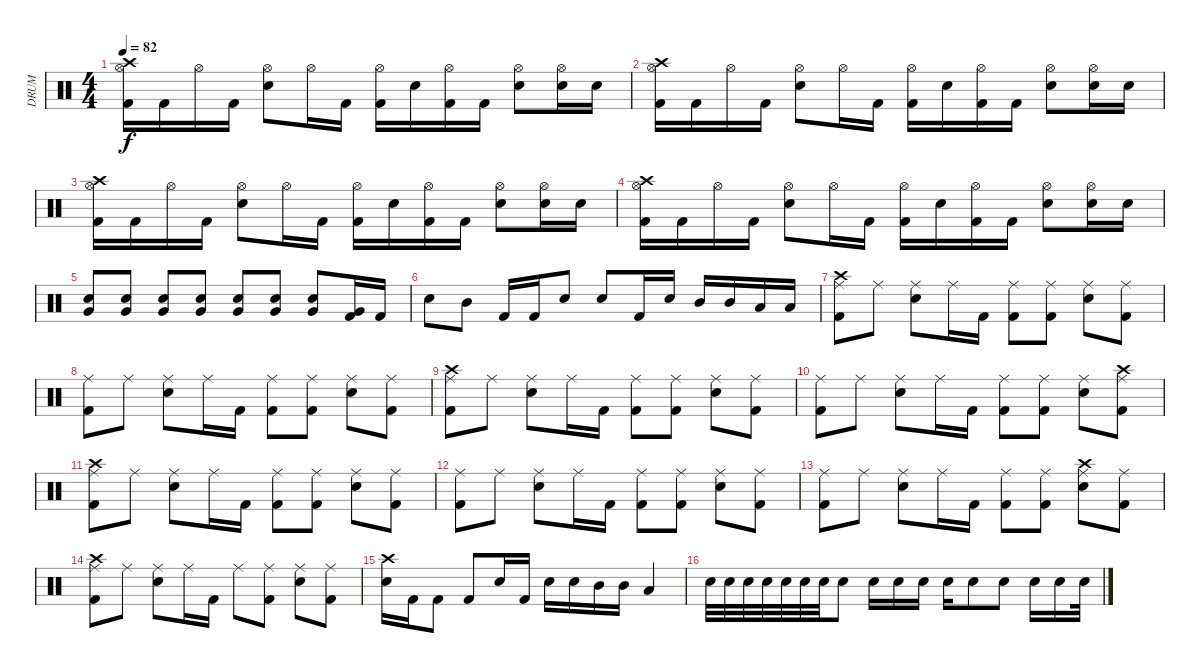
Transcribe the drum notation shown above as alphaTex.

\track ("DRUM" "DRUM") {instrument percussion}
\staff {score}
\articulation defaults
\ts (4 4)
\tempo 82
\clef neutral
\ks c
("Crash high (hit)" "Hi-Hat (open)" "Kick (hit) 2").16{dy f} "Kick (hit) 2".16 "Hi-Hat (open)".16 "Kick (hit) 2".16 ("Hi-Hat (open)" "Electric Snare (hit)").8 "Hi-Hat (open)".16 "Kick (hit) 2".16 ("Hi-Hat (open)" "Kick (hit) 2").16 "Electric Snare (hit)".16 ("Hi-Hat (open)" "Kick (hit) 2").16 "Kick (hit) 2".16 ("Hi-Hat (open)" "Electric Snare (hit)").8 ("Hi-Hat (open)" "Electric Snare (hit)").16 "Electric Snare (hit)".16 |
("Crash high (hit)" "Hi-Hat (open)" "Kick (hit) 2").16 "Kick (hit) 2".16 "Hi-Hat (open)".16 "Kick (hit) 2".16 ("Hi-Hat (open)" "Electric Snare (hit)").8 "Hi-Hat (open)".16 "Kick (hit) 2".16 ("Hi-Hat (open)" "Kick (hit) 2").16 "Electric Snare (hit)".16 ("Hi-Hat (open)" "Kick (hit) 2").16 "Kick (hit) 2".16 ("Hi-Hat (open)" "Electric Snare (hit)").8 ("Hi-Hat (open)" "Electric Snare (hit)").16 "Electric Snare (hit)".16 |
("Crash high (hit)" "Hi-Hat (open)" "Kick (hit) 2").16 "Kick (hit) 2".16 "Hi-Hat (open)".16 "Kick (hit) 2".16 ("Hi-Hat (open)" "Electric Snare (hit)").8 "Hi-Hat (open)".16 "Kick (hit) 2".16 ("Hi-Hat (open)" "Kick (hit) 2").16 "Electric Snare (hit)".16 ("Hi-Hat (open)" "Kick (hit) 2").16 "Kick (hit) 2".16 ("Hi-Hat (open)" "Electric Snare (hit)").8 ("Hi-Hat (open)" "Electric Snare (hit)").16 "Electric Snare (hit)".16 |
("Crash high (hit)" "Hi-Hat (open)" "Kick (hit) 2").16 "Kick (hit) 2".16 "Hi-Hat (open)".16 "Kick (hit) 2".16 ("Hi-Hat (open)" "Electric Snare (hit)").8 "Hi-Hat (open)".16 "Kick (hit) 2".16 ("Hi-Hat (open)" "Kick (hit) 2").16 "Electric Snare (hit)".16 ("Hi-Hat (open)" "Kick (hit) 2").16 "Kick (hit) 2".16 ("Hi-Hat (open)" "Electric Snare (hit)").8 ("Hi-Hat (open)" "Electric Snare (hit)").16 "Electric Snare (hit)".16 |
("Electric Snare (hit)" "Very Low Tom (hit)").8{volume 2} ("Electric Snare (hit)" "Very Low Tom (hit)").8 ("Electric Snare (hit)" "Very Low Tom (hit)").8{volume 13} ("Electric Snare (hit)" "Very Low Tom (hit)").8 ("Electric Snare (hit)" "Very Low Tom (hit)").8 ("Electric Snare (hit)" "Very Low Tom (hit)").8 ("Electric Snare (hit)" "Very Low Tom (hit)").8 ("Kick (hit) 2" "Very Low Tom (hit)").16 "Kick (hit) 2".16 |
"Electric Snare (hit)".8 "Mid Tom (hit)".8 "Kick (hit) 2".16 "Kick (hit) 2".16 "Electric Snare (hit)".8 "Electric Snare (hit)".8 "Kick (hit) 2".16 "Electric Snare (hit)".16 "Mid Tom (hit)".16 "Mid Tom (hit)".16 "Low Tom (hit)".16 "Low Tom (hit)".16 |
("Crash high (hit)" "Ride (middle)" "Kick (hit) 2").8 "Ride (middle)".8 ("Ride (middle)" "Electric Snare (hit)").8 "Ride (middle)".16 "Kick (hit) 2".16 ("Ride (middle)" "Kick (hit) 2").8 ("Ride (middle)" "Kick (hit) 2").8 ("Ride (middle)" "Electric Snare (hit)").8 ("Ride (middle)" "Kick (hit) 2").8 |
("Ride (middle)" "Kick (hit) 2").8 "Ride (middle)".8 ("Ride (middle)" "Electric Snare (hit)").8 "Ride (middle)".16 "Kick (hit) 2".16 ("Ride (middle)" "Kick (hit) 2").8 ("Ride (middle)" "Kick (hit) 2").8 ("Ride (middle)" "Electric Snare (hit)").8 ("Ride (middle)" "Kick (hit) 2").8 |
("Crash high (hit)" "Ride (middle)" "Kick (hit) 2").8 "Ride (middle)".8 ("Ride (middle)" "Electric Snare (hit)").8 "Ride (middle)".16 "Kick (hit) 2".16 ("Ride (middle)" "Kick (hit) 2").8 ("Ride (middle)" "Kick (hit) 2").8 ("Ride (middle)" "Electric Snare (hit)").8 ("Ride (middle)" "Kick (hit) 2").8 |
("Ride (middle)" "Kick (hit) 2").8 "Ride (middle)".8 ("Ride (middle)" "Electric Snare (hit)").8 "Ride (middle)".16 "Kick (hit) 2".16 ("Ride (middle)" "Kick (hit) 2").8 ("Ride (middle)" "Kick (hit) 2").8 ("Ride (middle)" "Electric Snare (hit)").8 ("Crash high (hit)" "Ride (middle)" "Kick (hit) 2").8 |
("Crash high (hit)" "Ride (middle)" "Kick (hit) 2").8 "Ride (middle)".8 ("Ride (middle)" "Electric Snare (hit)").8 "Ride (middle)".16 "Kick (hit) 2".16 ("Ride (middle)" "Kick (hit) 2").8 ("Ride (middle)" "Kick (hit) 2").8 ("Ride (middle)" "Electric Snare (hit)").8 ("Ride (middle)" "Kick (hit) 2").8 |
("Ride (middle)" "Kick (hit) 2").8 "Ride (middle)".8 ("Ride (middle)" "Electric Snare (hit)").8 "Ride (middle)".16 "Kick (hit) 2".16 ("Ride (middle)" "Kick (hit) 2").8 ("Ride (middle)" "Kick (hit) 2").8 ("Ride (middle)" "Electric Snare (hit)").8 ("Ride (middle)" "Kick (hit) 2").8 |
("Ride (middle)" "Kick (hit) 2").8 "Ride (middle)".8 ("Ride (middle)" "Electric Snare (hit)").8 "Ride (middle)".16 "Kick (hit) 2".16 ("Ride (middle)" "Kick (hit) 2").8 ("Ride (middle)" "Kick (hit) 2").8 ("Crash high (hit)" "Ride (middle)" "Electric Snare (hit)").8 ("Ride (middle)" "Kick (hit) 2").8 |
("Crash high (hit)" "Ride (middle)" "Kick (hit) 2").8 "Ride (middle)".8 ("Ride (middle)" "Electric Snare (hit)").8 "Ride (middle)".16 "Kick (hit) 2".16 "Ride (middle)".8 ("Ride (middle)" "Kick (hit) 2").8 ("Ride (middle)" "Electric Snare (hit)").8 ("Ride (middle)" "Kick (hit) 2").8 |
("Crash high (hit)" "Electric Snare (hit)").16 "Kick (hit) 2".16 "Kick (hit) 2".8 "Kick (hit) 2".8 "Electric Snare (hit)".16 "Kick (hit) 2".16 "Electric Snare (hit)".16 "Electric Snare (hit)".16 "Mid Tom (hit)".16 "Mid Tom (hit)".16 "Low Tom (hit)".4 |
"Electric Snare (hit)".32{volume 5} "Electric Snare (hit)".32 "Electric Snare (hit)".32 "Electric Snare (hit)".32 "Electric Snare (hit)".32 "Electric Snare (hit)".32 "Electric Snare (hit)".32 "Electric Snare (hit)".8 "Electric Snare (hit)".16 "Electric Snare (hit)".16 "Electric Snare (hit)".16 "Electric Snare (hit)".16 "Electric Snare (hit)".8 "Electric Snare (hit)".8 "Electric Snare (hit)".16 "Electric Snare (hit)".16 "Electric Snare (hit)".32
